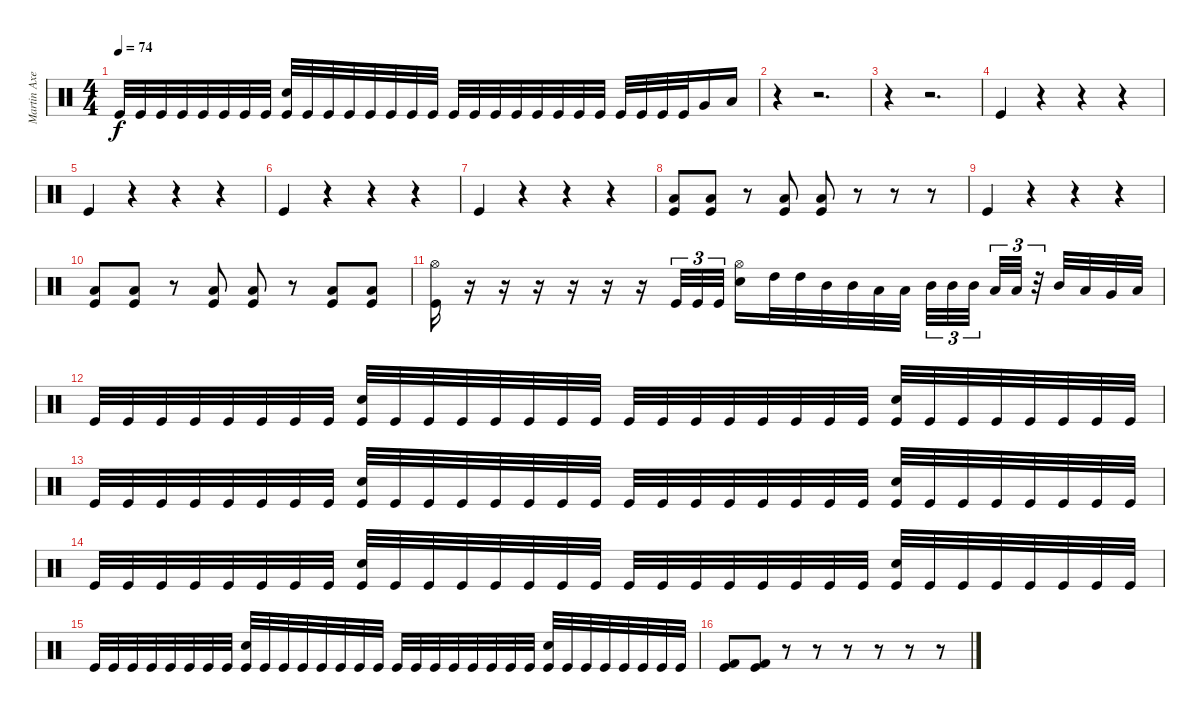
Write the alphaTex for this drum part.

\track ("Martin Axenrot - Drums" "Martin Axe") {instrument percussion}
\staff {score}
\articulation defaults
\ts (4 4)
\tempo 74
\clef neutral
\ks c "Kick (hit)".32{dy f} "Kick (hit)".32 "Kick (hit)".32 "Kick (hit)".32 "Kick (hit)".32 "Kick (hit)".32 "Kick (hit)".32 "Kick (hit)".32
("Snare (hit) 2" "Kick (hit)").32 "Kick (hit)".32 "Kick (hit)".32 "Kick (hit)".32 "Kick (hit)".32 "Kick (hit)".32 "Kick (hit)".32 "Kick (hit)".32 "Kick (hit)".32 "Kick (hit)".32 "Kick (hit)".32 "Kick (hit)".32 "Kick (hit)".32 "Kick (hit)".32 "Kick (hit)".32 "Kick (hit)".32 "Kick (hit)".32 "Kick (hit)".32 "Kick (hit)".32 "Kick (hit)".32 "Very Low Tom (hit)".16 "Low Floor Tom (hit)".16 |
r.4 r.2{d} |
r.4 r.2{d} |
"Kick (hit)".4 r.4 r.4 r.4 |
"Kick (hit)".4 r.4 r.4 r.4 |
"Kick (hit)".4 r.4 r.4 r.4 |
"Kick (hit)".4 r.4 r.4 r.4 |
("Low Floor Tom (hit)" "Kick (hit)").8 ("Low Floor Tom (hit)" "Kick (hit)").8 r.8 ("Low Floor Tom (hit)" "Kick (hit)").8 ("Low Floor Tom (hit)" "Kick (hit)").8 r.8 r.8 r.8 |
"Kick (hit)".4 r.4 r.4 r.4 |
("Low Floor Tom (hit)" "Kick (hit)").8 ("Low Floor Tom (hit)" "Kick (hit)").8 r.8 ("Low Floor Tom (hit)" "Kick (hit)").8 ("Low Floor Tom (hit)" "Kick (hit)").8 r.8 ("Low Floor Tom (hit)" "Kick (hit)").8 ("Low Floor Tom (hit)" "Kick (hit)").8 |
("Hi-Hat (open)" "Kick (hit)").16 r.16 r.16 r.16 r.16 r.16 r.16 "Kick (hit)".32{tu (3 2)} "Kick (hit)".32{tu (3 2)} "Kick (hit)".32{tu (3 2)} ("Hi-Hat (open)" "Snare (hit) 2").16 "High Tom (hit)".32 "High Tom (hit)".32 "Mid Tom (hit)".32 "Mid Tom (hit)".32 "Low Tom (hit)".32 "Low Tom (hit)".32 "Mid Tom (hit)".32{tu (3 2)} "Mid Tom (hit)".32{tu (3 2)} "Mid Tom (hit)".32{tu (3 2)} "Low Tom (hit)".32{tu (3 2)} "Low Tom (hit)".32{tu (3 2)} r.32{tu (3 2)} "Mid Tom (hit)".32 "Low Tom (hit)".32 "Very Low Tom (hit)".32 "Low Floor Tom (hit)".32 |
"Kick (hit)".32 "Kick (hit)".32 "Kick (hit)".32 "Kick (hit)".32 "Kick (hit)".32 "Kick (hit)".32 "Kick (hit)".32 "Kick (hit)".32 ("Snare (hit) 2" "Kick (hit)").32 "Kick (hit)".32 "Kick (hit)".32 "Kick (hit)".32 "Kick (hit)".32 "Kick (hit)".32 "Kick (hit)".32 "Kick (hit)".32 "Kick (hit)".32 "Kick (hit)".32 "Kick (hit)".32 "Kick (hit)".32 "Kick (hit)".32 "Kick (hit)".32 "Kick (hit)".32 "Kick (hit)".32 ("Snare (hit) 2" "Kick (hit)").32 "Kick (hit)".32 "Kick (hit)".32 "Kick (hit)".32 "Kick (hit)".32 "Kick (hit)".32 "Kick (hit)".32 "Kick (hit)".32 |
"Kick (hit)".32 "Kick (hit)".32 "Kick (hit)".32 "Kick (hit)".32 "Kick (hit)".32 "Kick (hit)".32 "Kick (hit)".32 "Kick (hit)".32 ("Snare (hit) 2" "Kick (hit)").32 "Kick (hit)".32 "Kick (hit)".32 "Kick (hit)".32 "Kick (hit)".32 "Kick (hit)".32 "Kick (hit)".32 "Kick (hit)".32 "Kick (hit)".32 "Kick (hit)".32 "Kick (hit)".32 "Kick (hit)".32 "Kick (hit)".32 "Kick (hit)".32 "Kick (hit)".32 "Kick (hit)".32 ("Snare (hit) 2" "Kick (hit)").32 "Kick (hit)".32 "Kick (hit)".32 "Kick (hit)".32 "Kick (hit)".32 "Kick (hit)".32 "Kick (hit)".32 "Kick (hit)".32 |
"Kick (hit)".32 "Kick (hit)".32 "Kick (hit)".32 "Kick (hit)".32 "Kick (hit)".32 "Kick (hit)".32 "Kick (hit)".32 "Kick (hit)".32 ("Snare (hit) 2" "Kick (hit)").32 "Kick (hit)".32 "Kick (hit)".32 "Kick (hit)".32 "Kick (hit)".32 "Kick (hit)".32 "Kick (hit)".32 "Kick (hit)".32 "Kick (hit)".32 "Kick (hit)".32 "Kick (hit)".32 "Kick (hit)".32 "Kick (hit)".32 "Kick (hit)".32 "Kick (hit)".32 "Kick (hit)".32 ("Snare (hit) 2" "Kick (hit)").32 "Kick (hit)".32 "Kick (hit)".32 "Kick (hit)".32 "Kick (hit)".32 "Kick (hit)".32 "Kick (hit)".32 "Kick (hit)".32 |
"Kick (hit)".32 "Kick (hit)".32 "Kick (hit)".32 "Kick (hit)".32 "Kick (hit)".32 "Kick (hit)".32 "Kick (hit)".32 "Kick (hit)".32 ("Snare (hit) 2" "Kick (hit)").32 "Kick (hit)".32 "Kick (hit)".32 "Kick (hit)".32 "Kick (hit)".32 "Kick (hit)".32 "Kick (hit)".32 "Kick (hit)".32 "Kick (hit)".32 "Kick (hit)".32 "Kick (hit)".32 "Kick (hit)".32 "Kick (hit)".32 "Kick (hit)".32 "Kick (hit)".32 "Kick (hit)".32 ("Snare (hit) 2" "Kick (hit)").32 "Kick (hit)".32 "Kick (hit)".32 "Kick (hit)".32 "Kick (hit)".32 "Kick (hit)".32 "Kick (hit)".32 "Kick (hit)".32 |
("Kick (hit) 2" "Kick (hit)").8 ("Kick (hit) 2" "Kick (hit)").8 r.8 r.8 r.8 r.8 r.8 r.8
